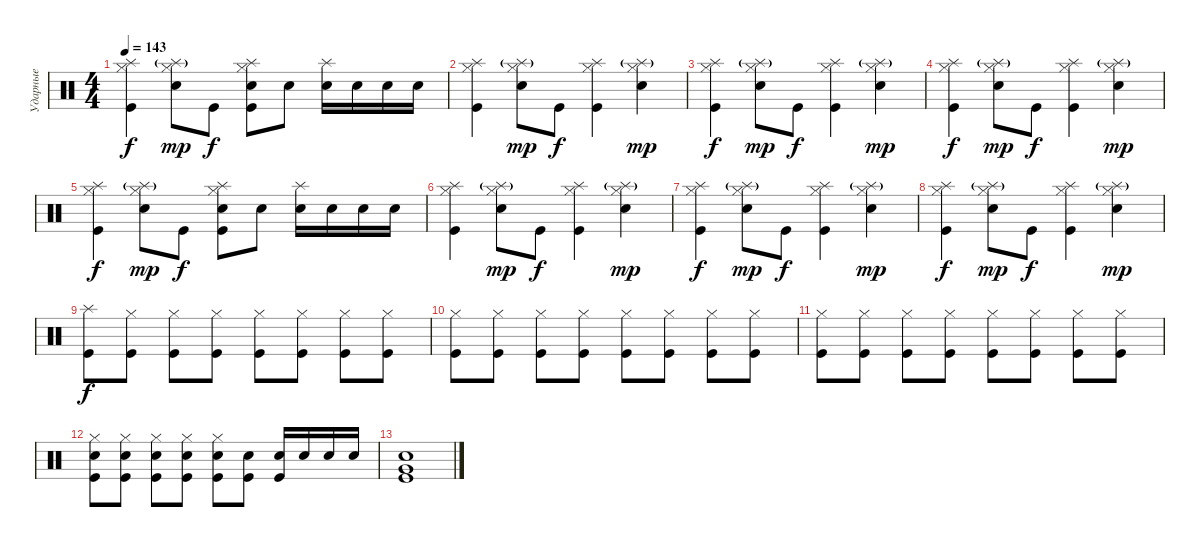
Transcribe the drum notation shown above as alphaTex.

\track ("Ударные" "Ударные") {instrument percussion}
\staff {score}
\articulation defaults
\ts (4 4)
\tempo 143
\clef neutral
\ks c
("Splash (hit)" "Hi-Hat (closed)" "Kick (hit)").4{dy f} ("Splash (hit)"{g} "Hi-Hat (closed)" "Electric Snare (hit)").8{dy mp} "Kick (hit)".8{dy f} ("Splash (hit)" "Hi-Hat (closed)" "Snare (hit) 2" "Kick (hit)").8 "Snare (hit) 2".8 ("Splash (hit)" "Snare (hit) 2").16 "Snare (hit) 2".16 "Snare (hit) 2".16 "Snare (hit) 2".16 |
("Splash (hit)" "Hi-Hat (closed)" "Kick (hit)").4 ("Splash (hit)"{g} "Hi-Hat (closed)" "Electric Snare (hit)").8{dy mp} "Kick (hit)".8{dy f} ("Splash (hit)" "Hi-Hat (closed)" "Kick (hit)").4 ("Splash (hit)"{g} "Hi-Hat (closed)" "Electric Snare (hit)").4{dy mp} |
("Splash (hit)" "Hi-Hat (closed)" "Kick (hit)").4{dy f} ("Splash (hit)"{g} "Hi-Hat (closed)" "Electric Snare (hit)").8{dy mp} "Kick (hit)".8{dy f} ("Splash (hit)" "Hi-Hat (closed)" "Kick (hit)").4 ("Splash (hit)"{g} "Hi-Hat (closed)" "Electric Snare (hit)").4{dy mp} |
("Splash (hit)" "Hi-Hat (closed)" "Kick (hit)").4{dy f} ("Splash (hit)"{g} "Hi-Hat (closed)" "Electric Snare (hit)").8{dy mp} "Kick (hit)".8{dy f} ("Splash (hit)" "Hi-Hat (closed)" "Kick (hit)").4 ("Splash (hit)"{g} "Hi-Hat (closed)" "Electric Snare (hit)").4{dy mp} |
("Splash (hit)" "Hi-Hat (closed)" "Kick (hit)").4{dy f} ("Splash (hit)"{g} "Hi-Hat (closed)" "Electric Snare (hit)").8{dy mp} "Kick (hit)".8{dy f} ("Splash (hit)" "Hi-Hat (closed)" "Snare (hit) 2" "Kick (hit)").8 "Snare (hit) 2".8 ("Splash (hit)" "Snare (hit) 2").16 "Snare (hit) 2".16 "Snare (hit) 2".16 "Snare (hit) 2".16 |
("Splash (hit)" "Hi-Hat (closed)" "Kick (hit)").4 ("Splash (hit)"{g} "Hi-Hat (closed)" "Electric Snare (hit)").8{dy mp} "Kick (hit)".8{dy f} ("Splash (hit)" "Hi-Hat (closed)" "Kick (hit)").4 ("Splash (hit)"{g} "Hi-Hat (closed)" "Electric Snare (hit)").4{dy mp} |
("Splash (hit)" "Hi-Hat (closed)" "Kick (hit)").4{dy f} ("Splash (hit)"{g} "Hi-Hat (closed)" "Electric Snare (hit)").8{dy mp} "Kick (hit)".8{dy f} ("Splash (hit)" "Hi-Hat (closed)" "Kick (hit)").4 ("Splash (hit)"{g} "Hi-Hat (closed)" "Electric Snare (hit)").4{dy mp} |
("Splash (hit)" "Hi-Hat (closed)" "Kick (hit)").4{dy f} ("Splash (hit)"{g} "Hi-Hat (closed)" "Electric Snare (hit)").8{dy mp} "Kick (hit)".8{dy f} ("Splash (hit)" "Hi-Hat (closed)" "Kick (hit)").4 ("Splash (hit)"{g} "Hi-Hat (closed)" "Electric Snare (hit)").4{dy mp} |
("Splash (hit)" "Kick (hit)").8{dy f} ("Hi-Hat (closed)" "Kick (hit)").8 ("Hi-Hat (closed)" "Kick (hit)").8 ("Hi-Hat (closed)" "Kick (hit)").8 ("Hi-Hat (closed)" "Kick (hit)").8 ("Hi-Hat (closed)" "Kick (hit)").8 ("Hi-Hat (closed)" "Kick (hit)").8 ("Hi-Hat (closed)" "Kick (hit)").8 |
("Hi-Hat (closed)" "Kick (hit)").8 ("Hi-Hat (closed)" "Kick (hit)").8 ("Hi-Hat (closed)" "Kick (hit)").8 ("Hi-Hat (closed)" "Kick (hit)").8 ("Hi-Hat (closed)" "Kick (hit)").8 ("Hi-Hat (closed)" "Kick (hit)").8 ("Hi-Hat (closed)" "Kick (hit)").8 ("Hi-Hat (closed)" "Kick (hit)").8 |
("Hi-Hat (closed)" "Kick (hit)").8 ("Hi-Hat (closed)" "Kick (hit)").8 ("Hi-Hat (closed)" "Kick (hit)").8 ("Hi-Hat (closed)" "Kick (hit)").8 ("Hi-Hat (closed)" "Kick (hit)").8 ("Hi-Hat (closed)" "Kick (hit)").8 ("Hi-Hat (closed)" "Kick (hit)").8 ("Hi-Hat (closed)" "Kick (hit)").8 |
("Hi-Hat (closed)" "Electric Snare (hit)" "Kick (hit)").8 ("Hi-Hat (closed)" "Electric Snare (hit)" "Kick (hit)").8 ("Hi-Hat (closed)" "Electric Snare (hit)" "Kick (hit)").8 ("Hi-Hat (closed)" "Electric Snare (hit)" "Kick (hit)").8 ("Hi-Hat (closed)" "Snare (hit) 2" "Kick (hit)").8 ("Snare (hit) 2" "Kick (hit)").8 ("Snare (hit) 2" "Kick (hit)").16 "Snare (hit) 2".16 "Snare (hit) 2".16 "Snare (hit) 2".16 |
("Electric Snare (hit)" "Very Low Tom (hit)" "Kick (hit)").1
